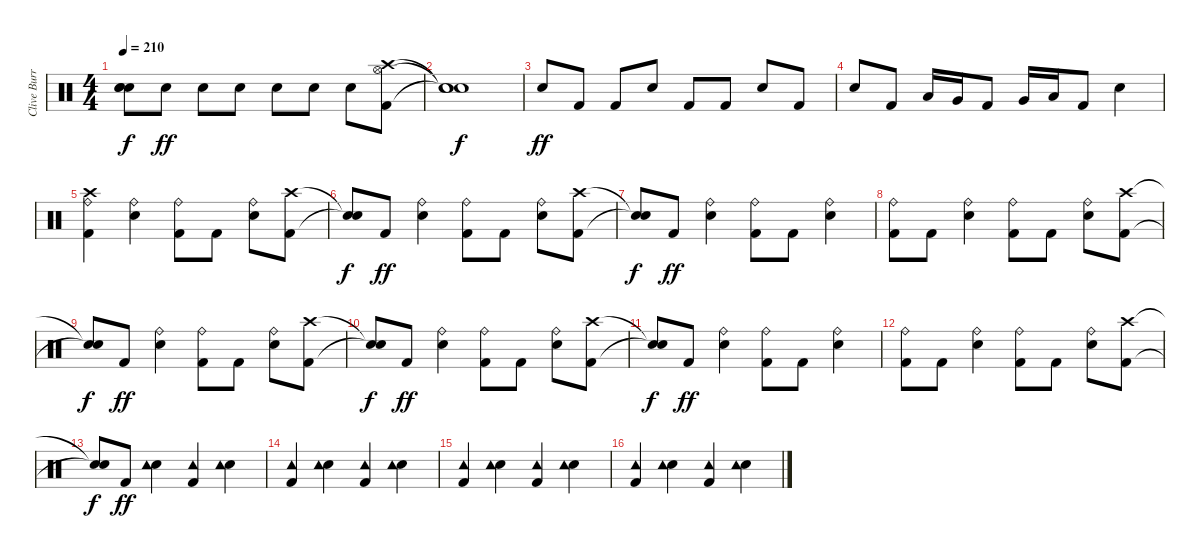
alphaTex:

\track ("Clive Burr" "Clive Burr") {instrument percussion}
\staff {score}
\articulation defaults
\ts (4 4)
\tempo 210
\clef neutral
\ks c
("Snare (hit)"{t} "Snare (hit)"{t} "Snare (hit)"{t}).8{dy f} "Snare (hit) 2".8{dy ff} "Snare (hit) 2".8 "Snare (hit) 2".8 "Snare (hit) 2".8 "Snare (hit) 2".8 "Snare (hit) 2".8 ("Kick (hit) 2" "Hi-Hat (open)" "Crash high (hit)").8 |
("Snare (hit)"{t} "Snare (hit)"{t} "Snare (hit)"{t}).1{dy f} |
"Snare (hit) 2".8{dy ff} "Kick (hit) 2".8 "Kick (hit) 2".8 "Snare (hit) 2".8 "Kick (hit) 2".8 "Kick (hit) 2".8 "Snare (hit) 2".8 "Kick (hit) 2".8 |
"Snare (hit) 2".8 "Kick (hit) 2".8 "Low Tom (hit)".16 "Very Low Tom (hit)".16 "Kick (hit) 2".8 "Very Low Tom (hit)".16 "Low Floor Tom (hit)".16 "Kick (hit) 2".8 "Snare (hit) 2".4 |
("Kick (hit) 2" "Crash high (hit)" "Ride (bell)").4 ("Snare (hit) 2" "Ride (bell)").4 ("Kick (hit) 2" "Ride (bell)").8 "Kick (hit) 2".8 ("Snare (hit) 2" "Ride (bell)").8 ("Kick (hit) 2" "Crash high (hit)").8 |
("Snare (hit)"{t} "Snare (hit)"{t}).8{dy f} "Kick (hit) 2".8{dy ff} ("Snare (hit) 2" "Ride (bell)").4 ("Kick (hit) 2" "Ride (bell)").8 "Kick (hit) 2".8 ("Snare (hit) 2" "Ride (bell)").8 ("Kick (hit) 2" "Crash high (hit)").8 |
("Snare (hit)"{t} "Snare (hit)"{t}).8{dy f} "Kick (hit) 2".8{dy ff} ("Snare (hit) 2" "Ride (bell)").4 ("Kick (hit) 2" "Ride (bell)").8 "Kick (hit) 2".8 ("Snare (hit) 2" "Ride (bell)").4 |
("Kick (hit) 2" "Ride (bell)").8 "Kick (hit) 2".8 ("Snare (hit) 2" "Ride (bell)").4 ("Kick (hit) 2" "Ride (bell)").8 "Kick (hit) 2".8 ("Snare (hit) 2" "Ride (bell)").8 ("Kick (hit) 2" "Crash high (hit)").8 |
("Snare (hit)"{t} "Snare (hit)"{t}).8{dy f} "Kick (hit) 2".8{dy ff} ("Snare (hit) 2" "Ride (bell)").4 ("Kick (hit) 2" "Ride (bell)").8 "Kick (hit) 2".8 ("Snare (hit) 2" "Ride (bell)").8 ("Kick (hit) 2" "Crash high (hit)").8 |
("Snare (hit)"{t} "Snare (hit)"{t}).8{dy f} "Kick (hit) 2".8{dy ff} ("Snare (hit) 2" "Ride (bell)").4 ("Kick (hit) 2" "Ride (bell)").8 "Kick (hit) 2".8 ("Snare (hit) 2" "Ride (bell)").8 ("Kick (hit) 2" "Crash high (hit)").8 |
("Snare (hit)"{t} "Snare (hit)"{t}).8{dy f} "Kick (hit) 2".8{dy ff} ("Snare (hit) 2" "Ride (bell)").4 ("Kick (hit) 2" "Ride (bell)").8 "Kick (hit) 2".8 ("Snare (hit) 2" "Ride (bell)").4 |
("Kick (hit) 2" "Ride (bell)").8 "Kick (hit) 2".8 ("Snare (hit) 2" "Ride (bell)").4 ("Kick (hit) 2" "Ride (bell)").8 "Kick (hit) 2".8 ("Snare (hit) 2" "Ride (bell)").8 ("Kick (hit) 2" "Crash high (hit)").8 |
("Snare (hit)"{t} "Snare (hit)"{t}).8{dy f} "Kick (hit) 2".8{dy ff} ("Snare (hit) 2" "Tambourine (hit)").4 ("Kick (hit) 2" "Tambourine (hit)").4 ("Snare (hit) 2" "Tambourine (hit)").4 |
("Kick (hit) 2" "Tambourine (hit)").4 ("Snare (hit) 2" "Tambourine (hit)").4 ("Kick (hit) 2" "Tambourine (hit)").4 ("Snare (hit) 2" "Tambourine (hit)").4 |
("Kick (hit) 2" "Tambourine (hit)").4 ("Snare (hit) 2" "Tambourine (hit)").4 ("Kick (hit) 2" "Tambourine (hit)").4 ("Snare (hit) 2" "Tambourine (hit)").4 |
("Kick (hit) 2" "Tambourine (hit)").4 ("Snare (hit) 2" "Tambourine (hit)").4 ("Kick (hit) 2" "Tambourine (hit)").4 ("Snare (hit) 2" "Tambourine (hit)").4
